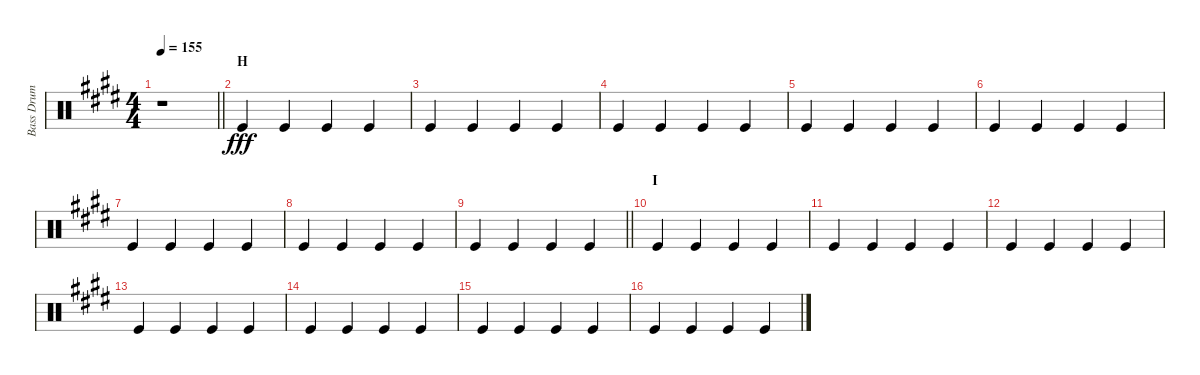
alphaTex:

\track ("Bass Drum" "Bass Drum") {instrument percussion}
\staff {score}
\articulation defaults
\ts (4 4)
\tempo 155
\clef neutral
\barLineRight lightlight
\ks e
r.1{dy fff} |
\section ("" "H")
"Kick (hit)".4 "Kick (hit)".4 "Kick (hit)".4 "Kick (hit)".4 |
"Kick (hit)".4 "Kick (hit)".4 "Kick (hit)".4 "Kick (hit)".4 |
"Kick (hit)".4 "Kick (hit)".4 "Kick (hit)".4 "Kick (hit)".4 |
"Kick (hit)".4 "Kick (hit)".4 "Kick (hit)".4 "Kick (hit)".4 |
"Kick (hit)".4 "Kick (hit)".4 "Kick (hit)".4 "Kick (hit)".4 |
"Kick (hit)".4 "Kick (hit)".4 "Kick (hit)".4 "Kick (hit)".4 |
"Kick (hit)".4 "Kick (hit)".4 "Kick (hit)".4 "Kick (hit)".4 |
\barLineRight lightlight "Kick (hit)".4 "Kick (hit)".4 "Kick (hit)".4 "Kick (hit)".4
|
\section ("" "I")
"Kick (hit)".4 "Kick (hit)".4 "Kick (hit)".4 "Kick (hit)".4 |
"Kick (hit)".4 "Kick (hit)".4 "Kick (hit)".4 "Kick (hit)".4 |
"Kick (hit)".4 "Kick (hit)".4 "Kick (hit)".4 "Kick (hit)".4 |
"Kick (hit)".4 "Kick (hit)".4 "Kick (hit)".4 "Kick (hit)".4 |
"Kick (hit)".4 "Kick (hit)".4 "Kick (hit)".4 "Kick (hit)".4 |
"Kick (hit)".4 "Kick (hit)".4 "Kick (hit)".4 "Kick (hit)".4 |
"Kick (hit)".4 "Kick (hit)".4 "Kick (hit)".4 "Kick (hit)".4
